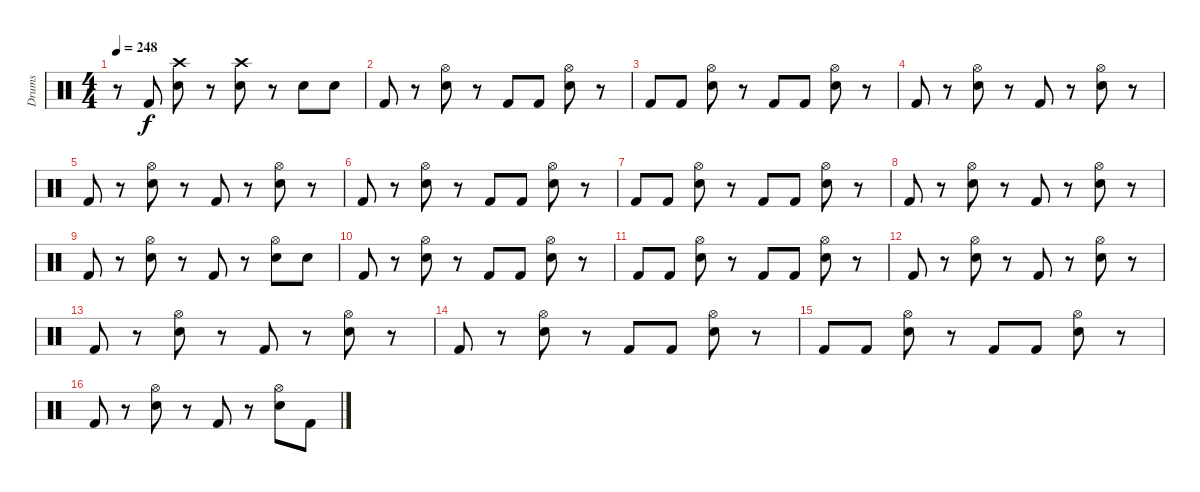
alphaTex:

\track ("Drums" "Drums") {instrument percussion}
\staff {score}
\articulation defaults
\ts (4 4)
\tempo 248
\clef neutral
\ks c
r.8{dy f} "Kick (hit) 2".8 ("Electric Snare (hit)" "Crash high (hit)").8 r.8 ("Electric Snare (hit)" "Crash high (hit)").8 r.8 "Electric Snare (hit)".8 "Electric Snare (hit)".8 |
"Kick (hit) 2".8 r.8 ("Electric Snare (hit)" "Hi-Hat (open)").8 r.8 "Kick (hit) 2".8 "Kick (hit) 2".8 ("Electric Snare (hit)" "Hi-Hat (open)").8 r.8 |
"Kick (hit) 2".8 "Kick (hit) 2".8 ("Electric Snare (hit)" "Hi-Hat (open)").8 r.8 "Kick (hit) 2".8 "Kick (hit) 2".8 ("Electric Snare (hit)" "Hi-Hat (open)").8 r.8 |
"Kick (hit) 2".8 r.8 ("Electric Snare (hit)" "Hi-Hat (open)").8 r.8 "Kick (hit) 2".8 r.8 ("Electric Snare (hit)" "Hi-Hat (open)").8 r.8 |
"Kick (hit) 2".8 r.8 ("Electric Snare (hit)" "Hi-Hat (open)").8 r.8 "Kick (hit) 2".8 r.8 ("Electric Snare (hit)" "Hi-Hat (open)").8 r.8 |
"Kick (hit) 2".8 r.8 ("Electric Snare (hit)" "Hi-Hat (open)").8 r.8 "Kick (hit) 2".8 "Kick (hit) 2".8 ("Electric Snare (hit)" "Hi-Hat (open)").8 r.8 |
"Kick (hit) 2".8 "Kick (hit) 2".8 ("Electric Snare (hit)" "Hi-Hat (open)").8 r.8 "Kick (hit) 2".8 "Kick (hit) 2".8 ("Electric Snare (hit)" "Hi-Hat (open)").8 r.8 |
"Kick (hit) 2".8 r.8 ("Electric Snare (hit)" "Hi-Hat (open)").8 r.8 "Kick (hit) 2".8 r.8 ("Electric Snare (hit)" "Hi-Hat (open)").8 r.8 |
"Kick (hit) 2".8 r.8 ("Electric Snare (hit)" "Hi-Hat (open)").8 r.8 "Kick (hit) 2".8 r.8 ("Electric Snare (hit)" "Hi-Hat (open)").8 "Electric Snare (hit)".8 |
"Kick (hit) 2".8 r.8 ("Electric Snare (hit)" "Hi-Hat (open)").8 r.8 "Kick (hit) 2".8 "Kick (hit) 2".8 ("Electric Snare (hit)" "Hi-Hat (open)").8 r.8 |
"Kick (hit) 2".8 "Kick (hit) 2".8 ("Electric Snare (hit)" "Hi-Hat (open)").8 r.8 "Kick (hit) 2".8 "Kick (hit) 2".8 ("Electric Snare (hit)" "Hi-Hat (open)").8 r.8 |
"Kick (hit) 2".8 r.8 ("Electric Snare (hit)" "Hi-Hat (open)").8 r.8 "Kick (hit) 2".8 r.8 ("Electric Snare (hit)" "Hi-Hat (open)").8 r.8 |
"Kick (hit) 2".8 r.8 ("Electric Snare (hit)" "Hi-Hat (open)").8 r.8 "Kick (hit) 2".8 r.8 ("Electric Snare (hit)" "Hi-Hat (open)").8 r.8 |
"Kick (hit) 2".8 r.8 ("Electric Snare (hit)" "Hi-Hat (open)").8 r.8 "Kick (hit) 2".8 "Kick (hit) 2".8 ("Electric Snare (hit)" "Hi-Hat (open)").8 r.8 |
"Kick (hit) 2".8 "Kick (hit) 2".8 ("Electric Snare (hit)" "Hi-Hat (open)").8 r.8 "Kick (hit) 2".8 "Kick (hit) 2".8 ("Electric Snare (hit)" "Hi-Hat (open)").8 r.8 |
"Kick (hit) 2".8 r.8 ("Electric Snare (hit)" "Hi-Hat (open)").8 r.8 "Kick (hit) 2".8 r.8 ("Electric Snare (hit)" "Hi-Hat (open)").8 "Kick (hit) 2".8
